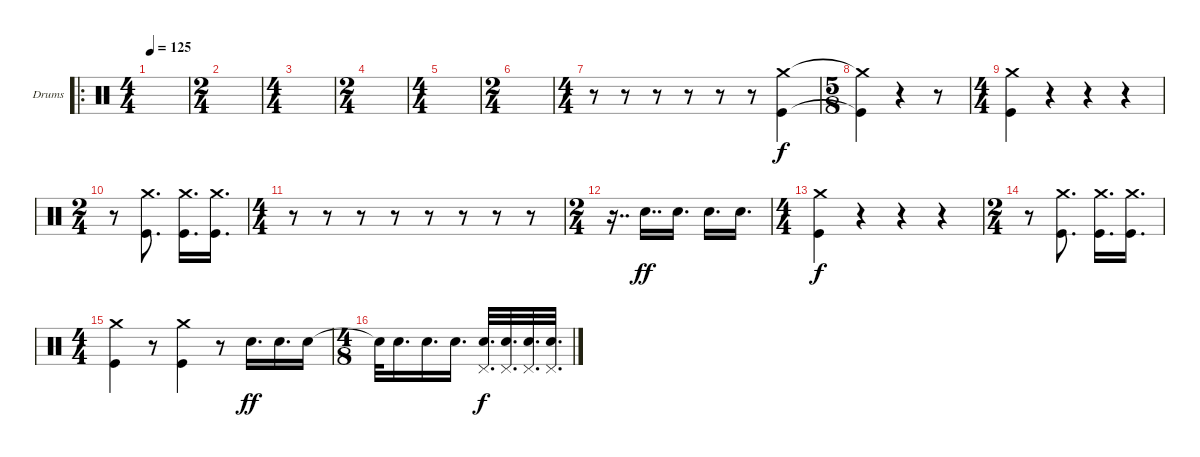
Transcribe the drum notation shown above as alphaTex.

\defaultSystemsLayout 4
\bracketExtendMode groupsimilarinstruments
\firstSystemTrackNameOrientation horizontal
\otherSystemsTrackNameOrientation horizontal
\track ("Drumkit" "Drums") {instrument percussion}
\staff {score}
\articulation defaults
\ro
\ts (4 4)
\tempo 125
\clef neutral
\scale
0.358491
\ks c
|
\ts (2 4)
\scale
0.320755 |
\ts (4 4)
\scale
0.320755 |
\ts (2 4)
\scale
0.333333 |
\ts (4 4)
\scale
0.333333 |
\ts (2 4)
\scale
0.333333 |
\ts (4 4)
r.8 r.8 r.8 r.8 r.8 r.8 ("Kick (hit)" "Crash medium (hit)").4 |
\ts (5 8)
\scale
0.404494 ("Kick (hit)"{t} "Crash medium (hit)"{t}).4 r.4 r.8 |
\ts (4 4)
("Kick (hit)" "Crash medium (hit)").4 r.4 r.4 r.4 |
\ts (2 4)
r.8 ("Kick (hit)" "Crash medium (hit)").8{d} ("Kick (hit)" "Crash medium (hit)").16{d} ("Kick (hit)" "Crash medium (hit)").16{d} |
\ts (4 4)
r.8 r.8 r.8 r.8 r.8 r.8 r.8 r.8 |
\ts (2 4)
r.16{dd} "Snare (hit) 2".16{dd dy ff} "Snare (hit) 2".16{d} "Snare (hit) 2".16{d} "Snare (hit) 2".16{d} |
\ts (4 4)
("Kick (hit)" "Crash medium (hit)").4{dy f} r.4 r.4 r.4 |
\ts (2 4)
r.8 ("Kick (hit)" "Crash medium (hit)").8{d} ("Kick (hit)" "Crash medium (hit)").16{d} ("Kick (hit)" "Crash medium (hit)").16{d} |
\ts (4 4)
("Kick (hit)" "Crash medium (hit)").4 r.8 ("Kick (hit)" "Crash medium (hit)").4 r.8 "Snare (hit) 2".16{d dy ff} "Snare (hit) 2".16{d} "Snare (hit) 2".16 |
\ts (4 8)
"Snare (hit) 2"{t}.32 "Snare (hit) 2".16{d} "Snare (hit) 2".16{d} "Snare (hit) 2".16{d} ("Pedal Hi-Hat (hit)" "Snare (hit) 2").32{d dy f} ("Pedal Hi-Hat (hit)" "Snare (hit) 2").32{d} ("Pedal Hi-Hat (hit)" "Snare (hit) 2").32{d} ("Pedal Hi-Hat (hit)" "Snare (hit) 2").32{d}
